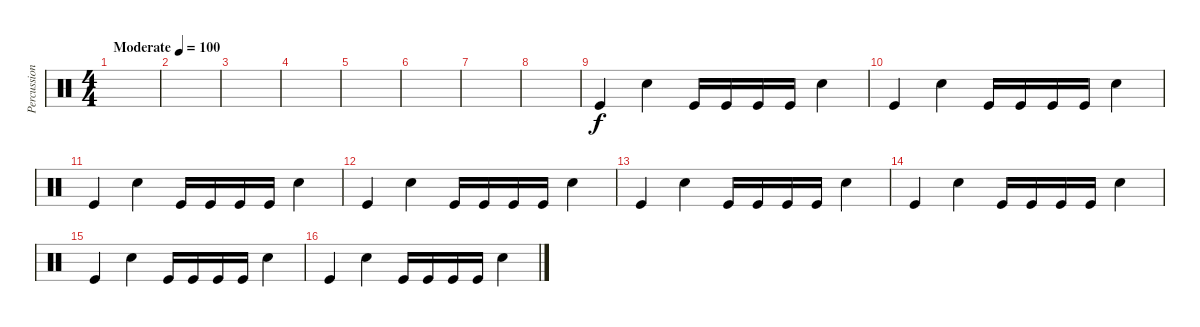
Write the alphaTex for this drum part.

\track ("Percussion" "Percussion") {instrument percussion}
\staff {score}
\articulation defaults
\ts (4 4)
\tempo (100 "Moderate")
\clef neutral
\ks c
|
|
|
|
|
|
|
|
"Kick (hit)".4 "Snare (hit) 2".4 "Kick (hit)".16 "Kick (hit)".16 "Kick (hit)".16 "Kick (hit)".16 "Snare (hit) 2".4 |
"Kick (hit)".4 "Snare (hit) 2".4 "Kick (hit)".16 "Kick (hit)".16 "Kick (hit)".16 "Kick (hit)".16 "Snare (hit) 2".4 |
"Kick (hit)".4 "Snare (hit) 2".4 "Kick (hit)".16 "Kick (hit)".16 "Kick (hit)".16 "Kick (hit)".16 "Snare (hit) 2".4 |
"Kick (hit)".4 "Snare (hit) 2".4 "Kick (hit)".16 "Kick (hit)".16 "Kick (hit)".16 "Kick (hit)".16 "Snare (hit) 2".4 |
"Kick (hit)".4 "Snare (hit) 2".4 "Kick (hit)".16 "Kick (hit)".16 "Kick (hit)".16 "Kick (hit)".16 "Snare (hit) 2".4 |
"Kick (hit)".4 "Snare (hit) 2".4 "Kick (hit)".16 "Kick (hit)".16 "Kick (hit)".16 "Kick (hit)".16 "Snare (hit) 2".4 |
"Kick (hit)".4 "Snare (hit) 2".4 "Kick (hit)".16 "Kick (hit)".16 "Kick (hit)".16 "Kick (hit)".16 "Snare (hit) 2".4 |
"Kick (hit)".4 "Snare (hit) 2".4 "Kick (hit)".16 "Kick (hit)".16 "Kick (hit)".16 "Kick (hit)".16 "Snare (hit) 2".4
